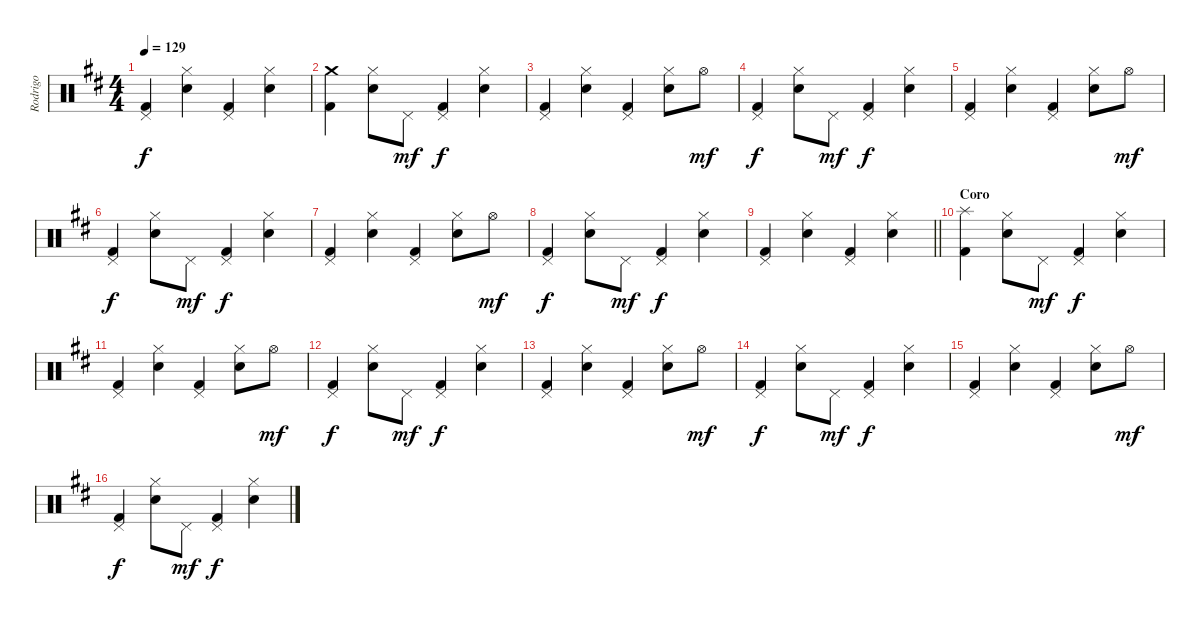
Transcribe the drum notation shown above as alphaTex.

\track ("Rodrigo " "Rodrigo ") {instrument percussion}
\staff {score}
\articulation defaults
\ts (4 4)
\tempo 129
\clef neutral
\ks d
("Pedal Hi-Hat (hit)" "Kick (hit) 2").4{dy f} ("Hi-Hat (closed)" "Electric Snare (hit)").4 ("Pedal Hi-Hat (hit)" "Kick (hit) 2").4 ("Hi-Hat (closed)" "Electric Snare (hit)").4 |
("Crash medium (hit)" "Kick (hit) 2").4 ("Hi-Hat (closed)" "Electric Snare (hit)").8 "Pedal Hi-Hat (hit)".8{dy mf} ("Pedal Hi-Hat (hit)" "Kick (hit) 2").4{dy f} ("Hi-Hat (closed)" "Electric Snare (hit)").4 |
("Pedal Hi-Hat (hit)" "Kick (hit) 2").4 ("Hi-Hat (closed)" "Electric Snare (hit)").4 ("Pedal Hi-Hat (hit)" "Kick (hit) 2").4 ("Hi-Hat (closed)" "Electric Snare (hit)").8 "Hi-Hat (open)".8{dy mf} |
("Pedal Hi-Hat (hit)" "Kick (hit) 2").4{dy f} ("Hi-Hat (closed)" "Electric Snare (hit)").8 "Pedal Hi-Hat (hit)".8{dy mf} ("Pedal Hi-Hat (hit)" "Kick (hit) 2").4{dy f} ("Hi-Hat (closed)" "Electric Snare (hit)").4 |
("Pedal Hi-Hat (hit)" "Kick (hit) 2").4 ("Hi-Hat (closed)" "Electric Snare (hit)").4 ("Pedal Hi-Hat (hit)" "Kick (hit) 2").4 ("Hi-Hat (closed)" "Electric Snare (hit)").8 "Hi-Hat (open)".8{dy mf} |
("Pedal Hi-Hat (hit)" "Kick (hit) 2").4{dy f} ("Hi-Hat (closed)" "Electric Snare (hit)").8 "Pedal Hi-Hat (hit)".8{dy mf} ("Pedal Hi-Hat (hit)" "Kick (hit) 2").4{dy f} ("Hi-Hat (closed)" "Electric Snare (hit)").4 |
("Pedal Hi-Hat (hit)" "Kick (hit) 2").4 ("Hi-Hat (closed)" "Electric Snare (hit)").4 ("Pedal Hi-Hat (hit)" "Kick (hit) 2").4 ("Hi-Hat (closed)" "Electric Snare (hit)").8 "Hi-Hat (open)".8{dy mf} |
("Pedal Hi-Hat (hit)" "Kick (hit) 2").4{dy f} ("Hi-Hat (closed)" "Electric Snare (hit)").8 "Pedal Hi-Hat (hit)".8{dy mf} ("Pedal Hi-Hat (hit)" "Kick (hit) 2").4{dy f} ("Hi-Hat (closed)" "Electric Snare (hit)").4 |
\barLineRight lightlight
("Pedal Hi-Hat (hit)" "Kick (hit) 2").4 ("Hi-Hat (closed)" "Electric Snare (hit)").4 ("Pedal Hi-Hat (hit)" "Kick (hit) 2").4 ("Hi-Hat (closed)" "Electric Snare (hit)").4 |
\section ("" "Coro")
("Splash (hit)" "Kick (hit) 2").4 ("Hi-Hat (closed)" "Electric Snare (hit)").8 "Pedal Hi-Hat (hit)".8{dy mf} ("Pedal Hi-Hat (hit)" "Kick (hit) 2").4{dy f} ("Hi-Hat (closed)" "Electric Snare (hit)").4 |
("Pedal Hi-Hat (hit)" "Kick (hit) 2").4 ("Hi-Hat (closed)" "Electric Snare (hit)").4 ("Pedal Hi-Hat (hit)" "Kick (hit) 2").4 ("Hi-Hat (closed)" "Electric Snare (hit)").8 "Hi-Hat (open)".8{dy mf} |
("Pedal Hi-Hat (hit)" "Kick (hit) 2").4{dy f} ("Hi-Hat (closed)" "Electric Snare (hit)").8 "Pedal Hi-Hat (hit)".8{dy mf} ("Pedal Hi-Hat (hit)" "Kick (hit) 2").4{dy f} ("Hi-Hat (closed)" "Electric Snare (hit)").4 |
("Pedal Hi-Hat (hit)" "Kick (hit) 2").4 ("Hi-Hat (closed)" "Electric Snare (hit)").4 ("Pedal Hi-Hat (hit)" "Kick (hit) 2").4 ("Hi-Hat (closed)" "Electric Snare (hit)").8 "Hi-Hat (open)".8{dy mf} |
("Pedal Hi-Hat (hit)" "Kick (hit) 2").4{dy f} ("Hi-Hat (closed)" "Electric Snare (hit)").8 "Pedal Hi-Hat (hit)".8{dy mf} ("Pedal Hi-Hat (hit)" "Kick (hit) 2").4{dy f} ("Hi-Hat (closed)" "Electric Snare (hit)").4 |
("Pedal Hi-Hat (hit)" "Kick (hit) 2").4 ("Hi-Hat (closed)" "Electric Snare (hit)").4 ("Pedal Hi-Hat (hit)" "Kick (hit) 2").4 ("Hi-Hat (closed)" "Electric Snare (hit)").8 "Hi-Hat (open)".8{dy mf} |
("Pedal Hi-Hat (hit)" "Kick (hit) 2").4{dy f} ("Hi-Hat (closed)" "Electric Snare (hit)").8 "Pedal Hi-Hat (hit)".8{dy mf} ("Pedal Hi-Hat (hit)" "Kick (hit) 2").4{dy f} ("Hi-Hat (closed)" "Electric Snare (hit)").4
